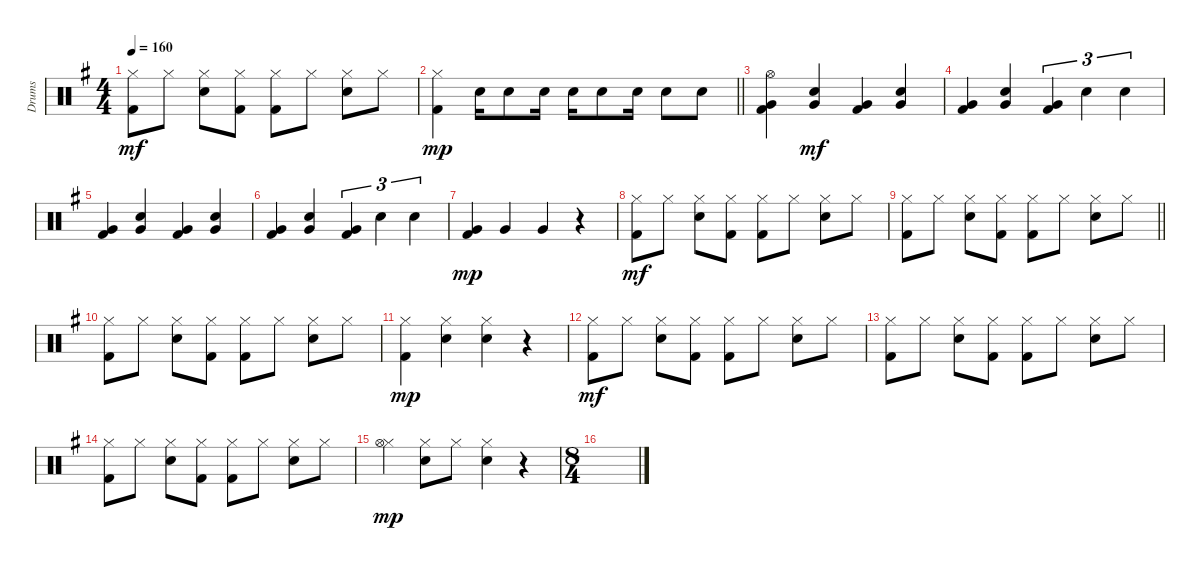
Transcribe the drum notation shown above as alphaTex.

\track ("Drums" "Drums") {instrument percussion}
\staff {score}
\articulation defaults
\ts (4 4)
\tempo 160
\clef neutral
\ks g
("Kick (hit) 2" "Hi-Hat (closed)").8{dy mf} "Hi-Hat (closed)".8 ("Hi-Hat (closed)" "Snare (hit) 2").8 ("Hi-Hat (closed)" "Kick (hit) 2").8 ("Hi-Hat (closed)" "Kick (hit) 2").8 "Hi-Hat (closed)".8 ("Hi-Hat (closed)" "Snare (hit) 2").8 "Hi-Hat (closed)".8 |
\barLineRight lightlight
("Hi-Hat (closed)" "Kick (hit) 2").4{dy mp} "Snare (hit) 2".16 "Snare (hit) 2".8 "Snare (hit) 2".16 "Snare (hit) 2".16 "Snare (hit) 2".8 "Snare (hit) 2".16 "Snare (hit) 2".8 "Snare (hit) 2".8 |
("Very Low Tom (hit)" "Kick (hit) 2" "Hi-Hat (open)").4 ("Very Low Tom (hit)" "Snare (hit) 2").4{dy mf} ("Very Low Tom (hit)" "Kick (hit) 2").4 ("Very Low Tom (hit)" "Snare (hit) 2").4 |
("Very Low Tom (hit)" "Kick (hit) 2").4 ("Very Low Tom (hit)" "Snare (hit) 2").4 ("Very Low Tom (hit)" "Kick (hit) 2").4{tu (3 2)} "Snare (hit) 2".4{tu (3 2)} "Snare (hit) 2".4{tu (3 2)} |
("Very Low Tom (hit)" "Kick (hit) 2").4 ("Very Low Tom (hit)" "Snare (hit) 2").4 ("Very Low Tom (hit)" "Kick (hit) 2").4 ("Very Low Tom (hit)" "Snare (hit) 2").4 |
("Very Low Tom (hit)" "Kick (hit) 2").4 ("Very Low Tom (hit)" "Snare (hit) 2").4 ("Very Low Tom (hit)" "Kick (hit) 2").4{tu (3 2)} "Snare (hit) 2".4{tu (3 2)} "Snare (hit) 2".4{tu (3 2)} |
("Very Low Tom (hit)" "Kick (hit) 2").4{dy mp} "Very Low Tom (hit)".4 "Very Low Tom (hit)".4 r.4 |
("Kick (hit) 2" "Hi-Hat (closed)").8{dy mf} "Hi-Hat (closed)".8 ("Hi-Hat (closed)" "Snare (hit) 2").8 ("Hi-Hat (closed)" "Kick (hit) 2").8 ("Hi-Hat (closed)" "Kick (hit) 2").8 "Hi-Hat (closed)".8 ("Hi-Hat (closed)" "Snare (hit) 2").8 "Hi-Hat (closed)".8 |
\barLineRight lightlight
("Kick (hit) 2" "Hi-Hat (closed)").8 "Hi-Hat (closed)".8 ("Hi-Hat (closed)" "Snare (hit) 2").8 ("Hi-Hat (closed)" "Kick (hit) 2").8 ("Hi-Hat (closed)" "Kick (hit) 2").8 "Hi-Hat (closed)".8 ("Hi-Hat (closed)" "Snare (hit) 2").8 "Hi-Hat (closed)".8 |
("Kick (hit) 2" "Hi-Hat (closed)").8 "Hi-Hat (closed)".8 ("Hi-Hat (closed)" "Snare (hit) 2").8 ("Hi-Hat (closed)" "Kick (hit) 2").8 ("Hi-Hat (closed)" "Kick (hit) 2").8 "Hi-Hat (closed)".8 ("Hi-Hat (closed)" "Snare (hit) 2").8 "Hi-Hat (closed)".8 |
("Hi-Hat (closed)" "Kick (hit) 2").4{dy mp} ("Hi-Hat (closed)" "Snare (hit) 2").4 ("Hi-Hat (closed)" "Snare (hit) 2").4 r.4 |
("Kick (hit) 2" "Hi-Hat (closed)").8{dy mf} "Hi-Hat (closed)".8 ("Hi-Hat (closed)" "Snare (hit) 2").8 ("Hi-Hat (closed)" "Kick (hit) 2").8 ("Hi-Hat (closed)" "Kick (hit) 2").8 "Hi-Hat (closed)".8 ("Hi-Hat (closed)" "Snare (hit) 2").8 "Hi-Hat (closed)".8 |
("Kick (hit) 2" "Hi-Hat (closed)").8 "Hi-Hat (closed)".8 ("Hi-Hat (closed)" "Snare (hit) 2").8 ("Hi-Hat (closed)" "Kick (hit) 2").8 ("Hi-Hat (closed)" "Kick (hit) 2").8 "Hi-Hat (closed)".8 ("Hi-Hat (closed)" "Snare (hit) 2").8 "Hi-Hat (closed)".8 |
("Kick (hit) 2" "Hi-Hat (closed)").8 "Hi-Hat (closed)".8 ("Hi-Hat (closed)" "Snare (hit) 2").8 ("Hi-Hat (closed)" "Kick (hit) 2").8 ("Hi-Hat (closed)" "Kick (hit) 2").8 "Hi-Hat (closed)".8 ("Hi-Hat (closed)" "Snare (hit) 2").8 "Hi-Hat (closed)".8 |
("Hi-Hat (closed)" "Hi-Hat (open)").4{dy mp} ("Hi-Hat (closed)" "Snare (hit) 2").8 "Hi-Hat (closed)".8 ("Hi-Hat (closed)" "Snare (hit) 2").4 r.4 |
\ts (8 4)
